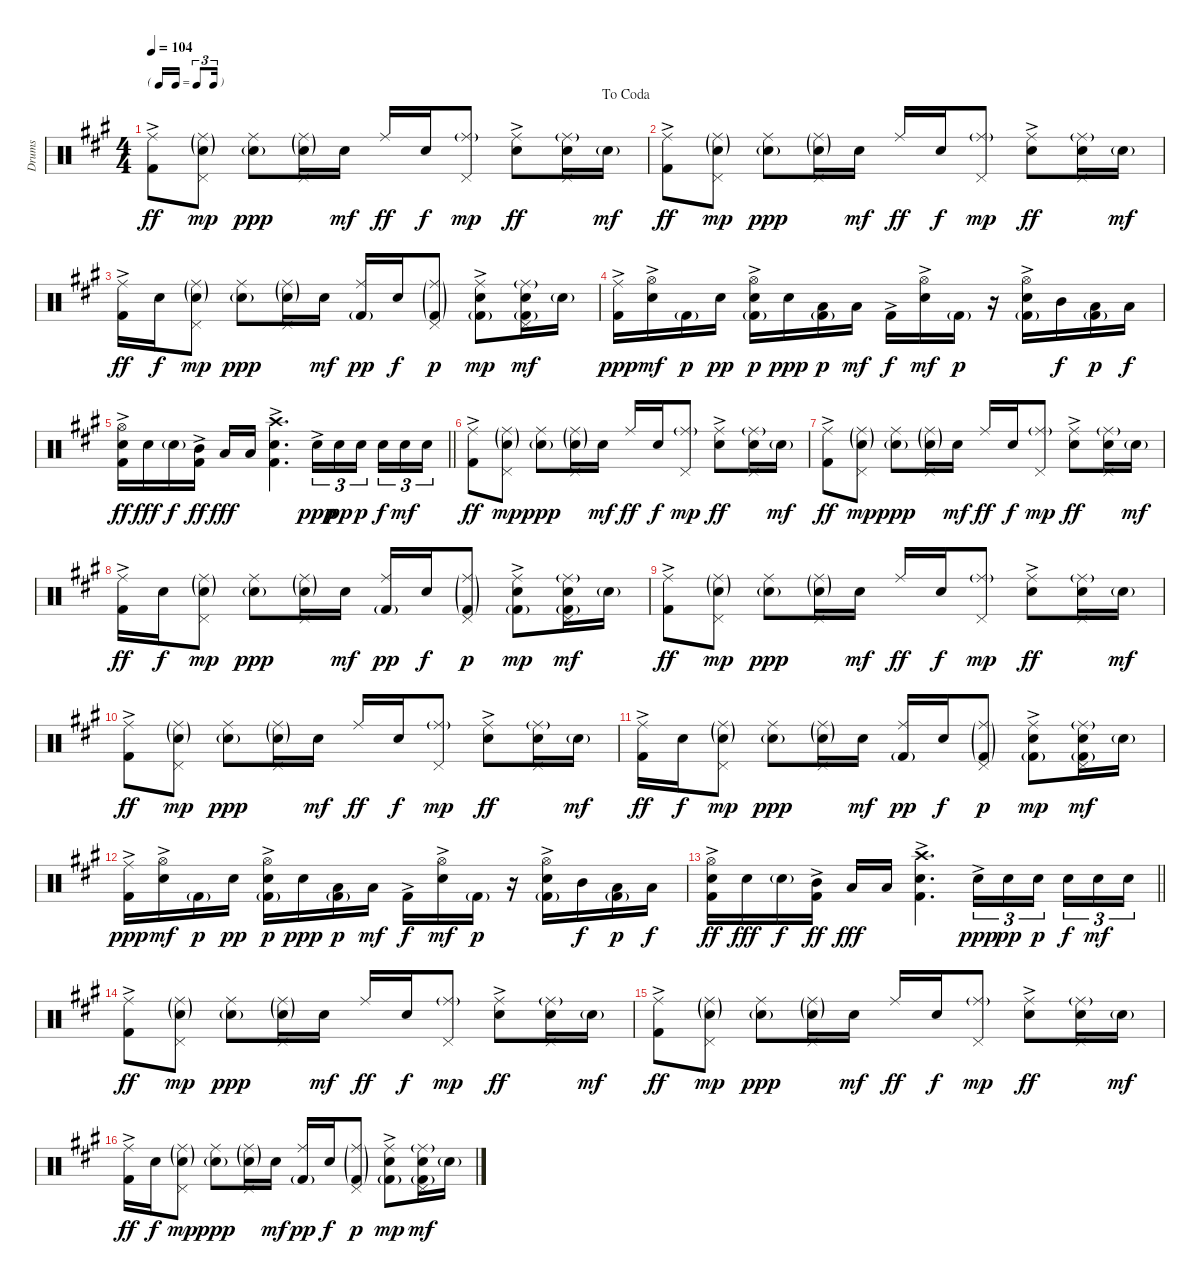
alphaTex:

\track ("Drums" "Drums") {instrument percussion}
\staff {score}
\articulation defaults
\ts (4 4)
\tf triplet16th
\jump dacoda
\tempo 104
\clef neutral
\ks a
("Ride (middle)" "Kick (hit) 2"{ac}).8{dy ff} ("Ride (middle)"{g} "Pedal Hi-Hat (hit)" "Snare (hit) 2"{g}).8{dy mp} ("Ride (middle)" "Snare (hit) 2"{g}).8{dy ppp} ("Ride (middle)"{g} "Pedal Hi-Hat (hit)" "Snare (hit) 2"{g}).16 "Snare (hit) 2".16{dy mf} "Ride (middle)".16{dy ff} "Snare (hit) 2".16{dy f} ("Ride (middle)"{g} "Pedal Hi-Hat (hit)").8{dy mp} ("Ride (middle)" "Snare (hit) 2"{ac}).8{dy ff} ("Ride (middle)"{g} "Pedal Hi-Hat (hit)" "Snare (hit) 2").16 "Snare (hit) 2"{g}.16{dy mf} |
("Ride (middle)" "Kick (hit) 2"{ac}).8{dy ff} ("Ride (middle)"{g} "Pedal Hi-Hat (hit)" "Snare (hit) 2"{g}).8{dy mp} ("Ride (middle)" "Snare (hit) 2"{g}).8{dy ppp} ("Ride (middle)"{g} "Pedal Hi-Hat (hit)" "Snare (hit) 2"{g}).16 "Snare (hit) 2".16{dy mf} "Ride (middle)".16{dy ff} "Snare (hit) 2".16{dy f} ("Ride (middle)"{g} "Pedal Hi-Hat (hit)").8{dy mp} ("Ride (middle)" "Snare (hit) 2"{ac}).8{dy ff} ("Ride (middle)"{g} "Pedal Hi-Hat (hit)" "Snare (hit) 2").16 "Snare (hit) 2"{g}.16{dy mf} |
("Ride (middle)" "Kick (hit) 2"{ac}).16{dy ff} "Snare (hit) 2".16{dy f} ("Ride (middle)"{g} "Pedal Hi-Hat (hit)" "Snare (hit) 2"{g}).8{dy mp} ("Ride (middle)" "Snare (hit) 2"{g}).8{dy ppp} ("Ride (middle)"{g} "Pedal Hi-Hat (hit)" "Snare (hit) 2"{g}).16 "Snare (hit) 2".16{dy mf} ("Ride (middle)" "Kick (hit) 2"{g}).16{dy pp} "Snare (hit) 2".16{dy f} ("Ride (middle)"{g} "Pedal Hi-Hat (hit)" "Kick (hit) 2"{g}).8{dy p} ("Ride (middle)" "Snare (hit) 2"{ac} "Kick (hit) 2"{g}).8{dy mp} ("Ride (middle)"{g} "Pedal Hi-Hat (hit)" "Snare (hit) 2" "Kick (hit) 2"{g}).16{dy mf} "Snare (hit) 2"{g}.16 |
("Ride (middle)" "Kick (hit) 2"{ac}).16{dy ppp} ("Hi-Hat (open)" "Snare (hit) 2"{ac}).16{dy mf} "Kick (hit) 2"{g}.16{dy p} "Snare (hit) 2".16{dy pp} ("Hi-Hat (open)" "Snare (hit) 2"{ac} "Kick (hit) 2"{g}).16{dy p} "Snare (hit) 2".16{dy ppp} ("Low Tom (hit)" "Kick (hit) 2"{g}).16{dy p} "Low Floor Tom (hit)".16{dy mf} "Kick (hit) 2"{ac}.16{dy f} ("Hi-Hat (open)" "Snare (hit) 2"{ac}).16{dy mf} "Kick (hit) 2"{g}.16{dy p} r.16 ("Hi-Hat (open)" "Snare (hit) 2"{ac} "Kick (hit) 2"{g}).16 "Mid Tom (hit)".16{dy f} ("Low Tom (hit)" "Kick (hit) 2"{g}).16{dy p} "Low Floor Tom (hit)".16{dy f} |
\barLineRight lightlight
("Hi-Hat (open)" "Snare (hit) 2" "Kick (hit) 2"{ac}).16{dy ff} "Snare (hit) 2".16{dy fff} "Snare (hit) 2"{g}.16{dy f} ("Mid Tom (hit)" "Kick (hit) 2"{ac}).16{dy ff} "Low Tom (hit)".16{dy fff} "Low Floor Tom (hit)".16 ("Crash high (hit)" "Snare (hit) 2" "Kick (hit) 2"{ac}).4{d} "Snare (hit) 2"{ac}.16{tu (3 2) dy ppp} "Snare (hit) 2".16{tu (3 2) dy pp} "Snare (hit) 2".16{tu (3 2) dy p beam splitsecondary} "Snare (hit) 2".16{tu (3 2) dy f} "Snare (hit) 2".16{tu (3 2) dy mf} "Snare (hit) 2".16{tu (3 2)} |
("Ride (middle)" "Kick (hit) 2"{ac}).8{dy ff} ("Ride (middle)"{g} "Pedal Hi-Hat (hit)" "Snare (hit) 2"{g}).8{dy mp} ("Ride (middle)" "Snare (hit) 2"{g}).8{dy ppp} ("Ride (middle)"{g} "Pedal Hi-Hat (hit)" "Snare (hit) 2"{g}).16 "Snare (hit) 2".16{dy mf} "Ride (middle)".16{dy ff} "Snare (hit) 2".16{dy f} ("Ride (middle)"{g} "Pedal Hi-Hat (hit)").8{dy mp} ("Ride (middle)" "Snare (hit) 2"{ac}).8{dy ff} ("Ride (middle)"{g} "Pedal Hi-Hat (hit)" "Snare (hit) 2").16 "Snare (hit) 2"{g}.16{dy mf} |
("Ride (middle)" "Kick (hit) 2"{ac}).8{dy ff} ("Ride (middle)"{g} "Pedal Hi-Hat (hit)" "Snare (hit) 2"{g}).8{dy mp} ("Ride (middle)" "Snare (hit) 2"{g}).8{dy ppp} ("Ride (middle)"{g} "Pedal Hi-Hat (hit)" "Snare (hit) 2"{g}).16 "Snare (hit) 2".16{dy mf} "Ride (middle)".16{dy ff} "Snare (hit) 2".16{dy f} ("Ride (middle)"{g} "Pedal Hi-Hat (hit)").8{dy mp} ("Ride (middle)" "Snare (hit) 2"{ac}).8{dy ff} ("Ride (middle)"{g} "Pedal Hi-Hat (hit)" "Snare (hit) 2").16 "Snare (hit) 2"{g}.16{dy mf} |
("Ride (middle)" "Kick (hit) 2"{ac}).16{dy ff} "Snare (hit) 2".16{dy f} ("Ride (middle)"{g} "Pedal Hi-Hat (hit)" "Snare (hit) 2"{g}).8{dy mp} ("Ride (middle)" "Snare (hit) 2"{g}).8{dy ppp} ("Ride (middle)"{g} "Pedal Hi-Hat (hit)" "Snare (hit) 2"{g}).16 "Snare (hit) 2".16{dy mf} ("Ride (middle)" "Kick (hit) 2"{g}).16{dy pp} "Snare (hit) 2".16{dy f} ("Ride (middle)"{g} "Pedal Hi-Hat (hit)" "Kick (hit) 2"{g}).8{dy p} ("Ride (middle)" "Snare (hit) 2"{ac} "Kick (hit) 2"{g}).8{dy mp} ("Ride (middle)"{g} "Pedal Hi-Hat (hit)" "Snare (hit) 2" "Kick (hit) 2"{g}).16{dy mf} "Snare (hit) 2"{g}.16 |
("Ride (middle)" "Kick (hit) 2"{ac}).8{dy ff} ("Ride (middle)"{g} "Pedal Hi-Hat (hit)" "Snare (hit) 2"{g}).8{dy mp} ("Ride (middle)" "Snare (hit) 2"{g}).8{dy ppp} ("Ride (middle)"{g} "Pedal Hi-Hat (hit)" "Snare (hit) 2"{g}).16 "Snare (hit) 2".16{dy mf} "Ride (middle)".16{dy ff} "Snare (hit) 2".16{dy f} ("Ride (middle)"{g} "Pedal Hi-Hat (hit)").8{dy mp} ("Ride (middle)" "Snare (hit) 2"{ac}).8{dy ff} ("Ride (middle)"{g} "Pedal Hi-Hat (hit)" "Snare (hit) 2").16 "Snare (hit) 2"{g}.16{dy mf} |
("Ride (middle)" "Kick (hit) 2"{ac}).8{dy ff} ("Ride (middle)"{g} "Pedal Hi-Hat (hit)" "Snare (hit) 2"{g}).8{dy mp} ("Ride (middle)" "Snare (hit) 2"{g}).8{dy ppp} ("Ride (middle)"{g} "Pedal Hi-Hat (hit)" "Snare (hit) 2"{g}).16 "Snare (hit) 2".16{dy mf} "Ride (middle)".16{dy ff} "Snare (hit) 2".16{dy f} ("Ride (middle)"{g} "Pedal Hi-Hat (hit)").8{dy mp} ("Ride (middle)" "Snare (hit) 2"{ac}).8{dy ff} ("Ride (middle)"{g} "Pedal Hi-Hat (hit)" "Snare (hit) 2").16 "Snare (hit) 2"{g}.16{dy mf} |
("Ride (middle)" "Kick (hit) 2"{ac}).16{dy ff} "Snare (hit) 2".16{dy f} ("Ride (middle)"{g} "Pedal Hi-Hat (hit)" "Snare (hit) 2"{g}).8{dy mp} ("Ride (middle)" "Snare (hit) 2"{g}).8{dy ppp} ("Ride (middle)"{g} "Pedal Hi-Hat (hit)" "Snare (hit) 2"{g}).16 "Snare (hit) 2".16{dy mf} ("Ride (middle)" "Kick (hit) 2"{g}).16{dy pp} "Snare (hit) 2".16{dy f} ("Ride (middle)"{g} "Pedal Hi-Hat (hit)" "Kick (hit) 2"{g}).8{dy p} ("Ride (middle)" "Snare (hit) 2"{ac} "Kick (hit) 2"{g}).8{dy mp} ("Ride (middle)"{g} "Pedal Hi-Hat (hit)" "Snare (hit) 2" "Kick (hit) 2"{g}).16{dy mf} "Snare (hit) 2"{g}.16 |
("Ride (middle)" "Kick (hit) 2"{ac}).16{dy ppp} ("Hi-Hat (open)" "Snare (hit) 2"{ac}).16{dy mf} "Kick (hit) 2"{g}.16{dy p} "Snare (hit) 2".16{dy pp} ("Hi-Hat (open)" "Snare (hit) 2"{ac} "Kick (hit) 2"{g}).16{dy p} "Snare (hit) 2".16{dy ppp} ("Low Tom (hit)" "Kick (hit) 2"{g}).16{dy p} "Low Floor Tom (hit)".16{dy mf} "Kick (hit) 2"{ac}.16{dy f} ("Hi-Hat (open)" "Snare (hit) 2"{ac}).16{dy mf} "Kick (hit) 2"{g}.16{dy p} r.16 ("Hi-Hat (open)" "Snare (hit) 2"{ac} "Kick (hit) 2"{g}).16 "Mid Tom (hit)".16{dy f} ("Low Tom (hit)" "Kick (hit) 2"{g}).16{dy p} "Low Floor Tom (hit)".16{dy f} |
\barLineRight lightlight
("Hi-Hat (open)" "Snare (hit) 2" "Kick (hit) 2"{ac}).16{dy ff} "Snare (hit) 2".16{dy fff} "Snare (hit) 2"{g}.16{dy f} ("Mid Tom (hit)" "Kick (hit) 2"{ac}).16{dy ff} "Low Tom (hit)".16{dy fff} "Low Floor Tom (hit)".16 ("Crash high (hit)" "Snare (hit) 2" "Kick (hit) 2"{ac}).4{d} "Snare (hit) 2"{ac}.16{tu (3 2) dy ppp} "Snare (hit) 2".16{tu (3 2) dy pp} "Snare (hit) 2".16{tu (3 2) dy p beam splitsecondary} "Snare (hit) 2".16{tu (3 2) dy f} "Snare (hit) 2".16{tu (3 2) dy mf} "Snare (hit) 2".16{tu (3 2)} |
("Ride (middle)" "Kick (hit) 2"{ac}).8{dy ff} ("Ride (middle)"{g} "Pedal Hi-Hat (hit)" "Snare (hit) 2"{g}).8{dy mp} ("Ride (middle)" "Snare (hit) 2"{g}).8{dy ppp} ("Ride (middle)"{g} "Pedal Hi-Hat (hit)" "Snare (hit) 2"{g}).16 "Snare (hit) 2".16{dy mf} "Ride (middle)".16{dy ff} "Snare (hit) 2".16{dy f} ("Ride (middle)"{g} "Pedal Hi-Hat (hit)").8{dy mp} ("Ride (middle)" "Snare (hit) 2"{ac}).8{dy ff} ("Ride (middle)"{g} "Pedal Hi-Hat (hit)" "Snare (hit) 2").16 "Snare (hit) 2"{g}.16{dy mf} |
("Ride (middle)" "Kick (hit) 2"{ac}).8{dy ff} ("Ride (middle)"{g} "Pedal Hi-Hat (hit)" "Snare (hit) 2"{g}).8{dy mp} ("Ride (middle)" "Snare (hit) 2"{g}).8{dy ppp} ("Ride (middle)"{g} "Pedal Hi-Hat (hit)" "Snare (hit) 2"{g}).16 "Snare (hit) 2".16{dy mf} "Ride (middle)".16{dy ff} "Snare (hit) 2".16{dy f} ("Ride (middle)"{g} "Pedal Hi-Hat (hit)").8{dy mp} ("Ride (middle)" "Snare (hit) 2"{ac}).8{dy ff} ("Ride (middle)"{g} "Pedal Hi-Hat (hit)" "Snare (hit) 2").16 "Snare (hit) 2"{g}.16{dy mf} |
("Ride (middle)" "Kick (hit) 2"{ac}).16{dy ff} "Snare (hit) 2".16{dy f} ("Ride (middle)"{g} "Pedal Hi-Hat (hit)" "Snare (hit) 2"{g}).8{dy mp} ("Ride (middle)" "Snare (hit) 2"{g}).8{dy ppp} ("Ride (middle)"{g} "Pedal Hi-Hat (hit)" "Snare (hit) 2"{g}).16 "Snare (hit) 2".16{dy mf} ("Ride (middle)" "Kick (hit) 2"{g}).16{dy pp} "Snare (hit) 2".16{dy f} ("Ride (middle)"{g} "Pedal Hi-Hat (hit)" "Kick (hit) 2"{g}).8{dy p} ("Ride (middle)" "Snare (hit) 2"{ac} "Kick (hit) 2"{g}).8{dy mp} ("Ride (middle)"{g} "Pedal Hi-Hat (hit)" "Snare (hit) 2" "Kick (hit) 2"{g}).16{dy mf} "Snare (hit) 2"{g}.16
